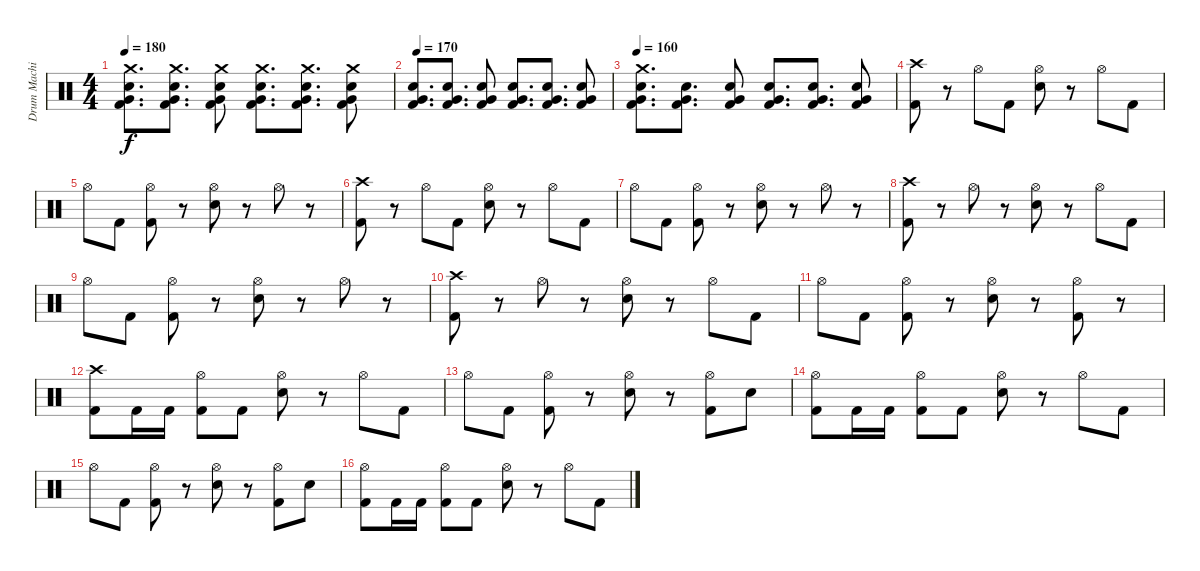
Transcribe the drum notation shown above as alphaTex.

\track ("Drum Machine" "Drum Machi") {instrument percussion}
\staff {score}
\articulation defaults
\ts (4 4)
\tempo 180
\clef neutral
\ks c
("Crash medium (hit)" "Very Low Tom (hit)" "Snare (hit) 2" "Kick (hit) 2").8{d dy f} ("Crash medium (hit)" "Very Low Tom (hit)" "Snare (hit) 2" "Kick (hit) 2").8{d} ("Crash medium (hit)" "Very Low Tom (hit)" "Snare (hit) 2" "Kick (hit) 2").8 ("Crash medium (hit)" "Very Low Tom (hit)" "Snare (hit) 2" "Kick (hit) 2").8{d} ("Crash medium (hit)" "Very Low Tom (hit)" "Snare (hit) 2" "Kick (hit) 2").8{d} ("Crash medium (hit)" "Very Low Tom (hit)" "Snare (hit) 2" "Kick (hit) 2").8 |
\tempo 170
("Snare (hit) 2" "Very Low Tom (hit)" "Kick (hit) 2").8{d} ("Snare (hit) 2" "Very Low Tom (hit)" "Kick (hit) 2").8{d} ("Snare (hit) 2" "Very Low Tom (hit)" "Kick (hit) 2").8 ("Snare (hit) 2" "Very Low Tom (hit)" "Kick (hit) 2").8{d} ("Snare (hit) 2" "Very Low Tom (hit)" "Kick (hit) 2").8{d} ("Snare (hit) 2" "Very Low Tom (hit)" "Kick (hit) 2").8 |
\tempo 160
("Crash medium (hit)" "Snare (hit) 2" "Very Low Tom (hit)" "Kick (hit) 2").8{d} ("Snare (hit) 2" "Very Low Tom (hit)" "Kick (hit) 2").8{d} ("Snare (hit) 2" "Very Low Tom (hit)" "Kick (hit) 2").8 ("Snare (hit) 2" "Very Low Tom (hit)" "Kick (hit) 2").8{d} ("Snare (hit) 2" "Very Low Tom (hit)" "Kick (hit) 2").8{d} ("Snare (hit) 2" "Very Low Tom (hit)" "Kick (hit) 2").8 |
("Crash high (hit)" "Kick (hit) 2").8 r.8 "Hi-Hat (open)".8 "Kick (hit) 2".8 ("Hi-Hat (open)" "Snare (hit) 2").8 r.8 "Hi-Hat (open)".8 "Kick (hit) 2".8 |
"Hi-Hat (open)".8 "Kick (hit) 2".8 ("Hi-Hat (open)" "Kick (hit) 2").8 r.8 ("Hi-Hat (open)" "Snare (hit) 2").8 r.8 "Hi-Hat (open)".8 r.8 |
("Crash high (hit)" "Kick (hit) 2").8 r.8 "Hi-Hat (open)".8 "Kick (hit) 2".8 ("Hi-Hat (open)" "Snare (hit) 2").8 r.8 "Hi-Hat (open)".8 "Kick (hit) 2".8 |
"Hi-Hat (open)".8 "Kick (hit) 2".8 ("Hi-Hat (open)" "Kick (hit) 2").8 r.8 ("Hi-Hat (open)" "Snare (hit) 2").8 r.8 "Hi-Hat (open)".8 r.8 |
("Crash high (hit)" "Kick (hit) 2").8 r.8 "Hi-Hat (open)".8 r.8 ("Hi-Hat (open)" "Snare (hit) 2").8 r.8 "Hi-Hat (open)".8 "Kick (hit) 2".8 |
"Hi-Hat (open)".8 "Kick (hit) 2".8 ("Hi-Hat (open)" "Kick (hit) 2").8 r.8 ("Hi-Hat (open)" "Snare (hit) 2").8 r.8 "Hi-Hat (open)".8 r.8 |
("Crash high (hit)" "Kick (hit) 2").8 r.8 "Hi-Hat (open)".8 r.8 ("Hi-Hat (open)" "Snare (hit) 2").8 r.8 "Hi-Hat (open)".8 "Kick (hit) 2".8 |
"Hi-Hat (open)".8 "Kick (hit) 2".8 ("Hi-Hat (open)" "Kick (hit) 2").8 r.8 ("Hi-Hat (open)" "Snare (hit) 2").8 r.8 ("Hi-Hat (open)" "Kick (hit) 2").8 r.8 |
("Crash high (hit)" "Kick (hit) 2").8 "Kick (hit) 2".16 "Kick (hit) 2".16 ("Hi-Hat (open)" "Kick (hit) 2").8 "Kick (hit) 2".8 ("Hi-Hat (open)" "Snare (hit) 2").8 r.8 "Hi-Hat (open)".8 "Kick (hit) 2".8 |
"Hi-Hat (open)".8 "Kick (hit) 2".8 ("Hi-Hat (open)" "Kick (hit) 2").8 r.8 ("Hi-Hat (open)" "Snare (hit) 2").8 r.8 ("Hi-Hat (open)" "Kick (hit) 2").8 "Snare (hit) 2".8 |
("Hi-Hat (open)" "Kick (hit) 2").8 "Kick (hit) 2".16 "Kick (hit) 2".16 ("Hi-Hat (open)" "Kick (hit) 2").8 "Kick (hit) 2".8 ("Hi-Hat (open)" "Snare (hit) 2").8 r.8 "Hi-Hat (open)".8 "Kick (hit) 2".8 |
"Hi-Hat (open)".8 "Kick (hit) 2".8 ("Hi-Hat (open)" "Kick (hit) 2").8 r.8 ("Hi-Hat (open)" "Snare (hit) 2").8 r.8 ("Hi-Hat (open)" "Kick (hit) 2").8 "Snare (hit) 2".8 |
("Hi-Hat (open)" "Kick (hit) 2").8 "Kick (hit) 2".16 "Kick (hit) 2".16 ("Hi-Hat (open)" "Kick (hit) 2").8 "Kick (hit) 2".8 ("Hi-Hat (open)" "Snare (hit) 2").8 r.8 "Hi-Hat (open)".8 "Kick (hit) 2".8
